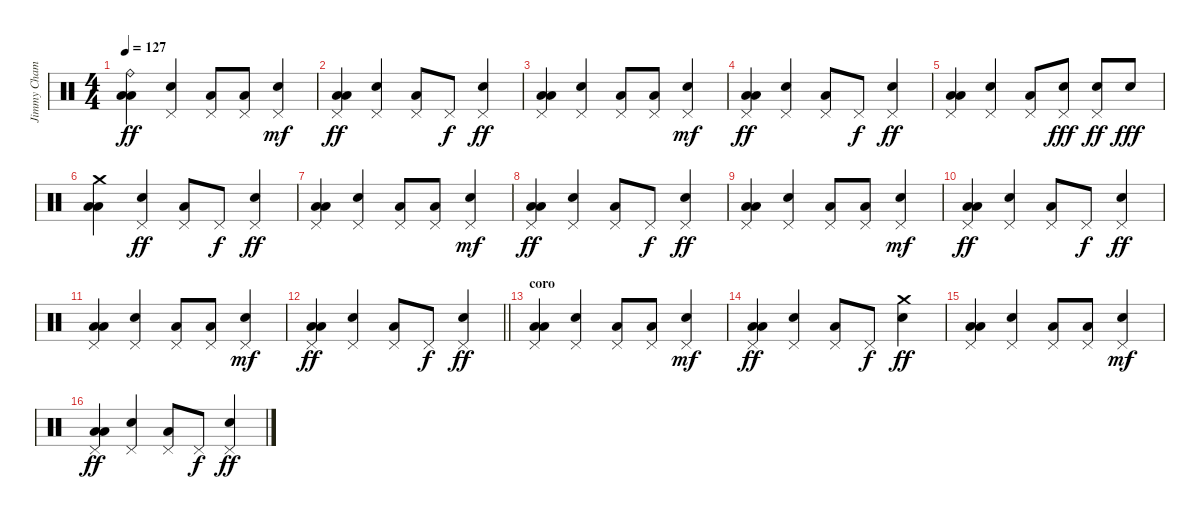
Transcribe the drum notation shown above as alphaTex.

\track ("Jimmy Chamberlin" "Jimmy Cham") {instrument percussion}
\staff {score}
\articulation defaults
\ts (4 4)
\tempo 127
\clef neutral
\ks c
("Low Floor Tom (hit)" "Low Tom (hit)" "Ride (bell)").4{dy ff} ("Snare (hit) 2" "Pedal Hi-Hat (hit)").4 ("Low Floor Tom (hit)" "Pedal Hi-Hat (hit)").8 ("Low Floor Tom (hit)" "Pedal Hi-Hat (hit)").8 ("Snare (hit) 2" "Pedal Hi-Hat (hit)").4{dy mf} |
("Low Floor Tom (hit)" "Low Tom (hit)" "Pedal Hi-Hat (hit)").4{dy ff} ("Snare (hit) 2" "Pedal Hi-Hat (hit)").4 ("Low Floor Tom (hit)" "Pedal Hi-Hat (hit)").8 "Pedal Hi-Hat (hit)".8{dy f} ("Snare (hit) 2" "Pedal Hi-Hat (hit)").4{dy ff} |
("Low Floor Tom (hit)" "Low Tom (hit)" "Pedal Hi-Hat (hit)").4 ("Snare (hit) 2" "Pedal Hi-Hat (hit)").4 ("Low Floor Tom (hit)" "Pedal Hi-Hat (hit)").8 ("Low Floor Tom (hit)" "Pedal Hi-Hat (hit)").8 ("Snare (hit) 2" "Pedal Hi-Hat (hit)").4{dy mf} |
("Low Floor Tom (hit)" "Low Tom (hit)" "Pedal Hi-Hat (hit)").4{dy ff} ("Snare (hit) 2" "Pedal Hi-Hat (hit)").4 ("Low Floor Tom (hit)" "Pedal Hi-Hat (hit)").8 "Pedal Hi-Hat (hit)".8{dy f} ("Snare (hit) 2" "Pedal Hi-Hat (hit)").4{dy ff} |
("Low Floor Tom (hit)" "Low Tom (hit)" "Pedal Hi-Hat (hit)").4 ("Snare (hit) 2" "Pedal Hi-Hat (hit)").4 ("Low Floor Tom (hit)" "Pedal Hi-Hat (hit)").8 ("Snare (hit) 2" "Pedal Hi-Hat (hit)").8{dy fff} ("Snare (hit) 2" "Pedal Hi-Hat (hit)").8{dy ff} "Snare (hit) 2".8{dy fff} |
("Low Floor Tom (hit)" "Low Tom (hit)" "Crash medium (hit)").4 ("Snare (hit) 2" "Pedal Hi-Hat (hit)").4{dy ff} ("Low Floor Tom (hit)" "Pedal Hi-Hat (hit)").8 "Pedal Hi-Hat (hit)".8{dy f} ("Snare (hit) 2" "Pedal Hi-Hat (hit)").4{dy ff} |
("Low Floor Tom (hit)" "Low Tom (hit)" "Pedal Hi-Hat (hit)").4 ("Snare (hit) 2" "Pedal Hi-Hat (hit)").4 ("Low Floor Tom (hit)" "Pedal Hi-Hat (hit)").8 ("Low Floor Tom (hit)" "Pedal Hi-Hat (hit)").8 ("Snare (hit) 2" "Pedal Hi-Hat (hit)").4{dy mf} |
("Low Floor Tom (hit)" "Low Tom (hit)" "Pedal Hi-Hat (hit)").4{dy ff} ("Snare (hit) 2" "Pedal Hi-Hat (hit)").4 ("Low Floor Tom (hit)" "Pedal Hi-Hat (hit)").8 "Pedal Hi-Hat (hit)".8{dy f} ("Snare (hit) 2" "Pedal Hi-Hat (hit)").4{dy ff} |
("Low Floor Tom (hit)" "Low Tom (hit)" "Pedal Hi-Hat (hit)").4 ("Snare (hit) 2" "Pedal Hi-Hat (hit)").4 ("Low Floor Tom (hit)" "Pedal Hi-Hat (hit)").8 ("Low Floor Tom (hit)" "Pedal Hi-Hat (hit)").8 ("Snare (hit) 2" "Pedal Hi-Hat (hit)").4{dy mf} |
("Low Floor Tom (hit)" "Low Tom (hit)" "Pedal Hi-Hat (hit)").4{dy ff} ("Snare (hit) 2" "Pedal Hi-Hat (hit)").4 ("Low Floor Tom (hit)" "Pedal Hi-Hat (hit)").8 "Pedal Hi-Hat (hit)".8{dy f} ("Snare (hit) 2" "Pedal Hi-Hat (hit)").4{dy ff} |
("Low Floor Tom (hit)" "Low Tom (hit)" "Pedal Hi-Hat (hit)").4 ("Snare (hit) 2" "Pedal Hi-Hat (hit)").4 ("Low Floor Tom (hit)" "Pedal Hi-Hat (hit)").8 ("Low Floor Tom (hit)" "Pedal Hi-Hat (hit)").8 ("Snare (hit) 2" "Pedal Hi-Hat (hit)").4{dy mf} |
\barLineRight lightlight
("Low Floor Tom (hit)" "Low Tom (hit)" "Pedal Hi-Hat (hit)").4{dy ff} ("Snare (hit) 2" "Pedal Hi-Hat (hit)").4 ("Low Floor Tom (hit)" "Pedal Hi-Hat (hit)").8 "Pedal Hi-Hat (hit)".8{dy f} ("Snare (hit) 2" "Pedal Hi-Hat (hit)").4{dy ff} |
\section ("" "coro")
("Low Floor Tom (hit)" "Low Tom (hit)" "Pedal Hi-Hat (hit)").4 ("Snare (hit) 2" "Pedal Hi-Hat (hit)").4 ("Low Floor Tom (hit)" "Pedal Hi-Hat (hit)").8 ("Low Floor Tom (hit)" "Pedal Hi-Hat (hit)").8 ("Snare (hit) 2" "Pedal Hi-Hat (hit)").4{dy mf} |
("Low Floor Tom (hit)" "Low Tom (hit)" "Pedal Hi-Hat (hit)").4{dy ff} ("Snare (hit) 2" "Pedal Hi-Hat (hit)").4 ("Low Floor Tom (hit)" "Pedal Hi-Hat (hit)").8 "Pedal Hi-Hat (hit)".8{dy f} ("Snare (hit) 2" "Crash medium (hit)").4{dy ff} |
("Low Floor Tom (hit)" "Low Tom (hit)" "Pedal Hi-Hat (hit)").4 ("Snare (hit) 2" "Pedal Hi-Hat (hit)").4 ("Low Floor Tom (hit)" "Pedal Hi-Hat (hit)").8 ("Low Floor Tom (hit)" "Pedal Hi-Hat (hit)").8 ("Snare (hit) 2" "Pedal Hi-Hat (hit)").4{dy mf} |
("Low Floor Tom (hit)" "Low Tom (hit)" "Pedal Hi-Hat (hit)").4{dy ff} ("Snare (hit) 2" "Pedal Hi-Hat (hit)").4 ("Low Floor Tom (hit)" "Pedal Hi-Hat (hit)").8 "Pedal Hi-Hat (hit)".8{dy f} ("Snare (hit) 2" "Pedal Hi-Hat (hit)").4{dy ff}
